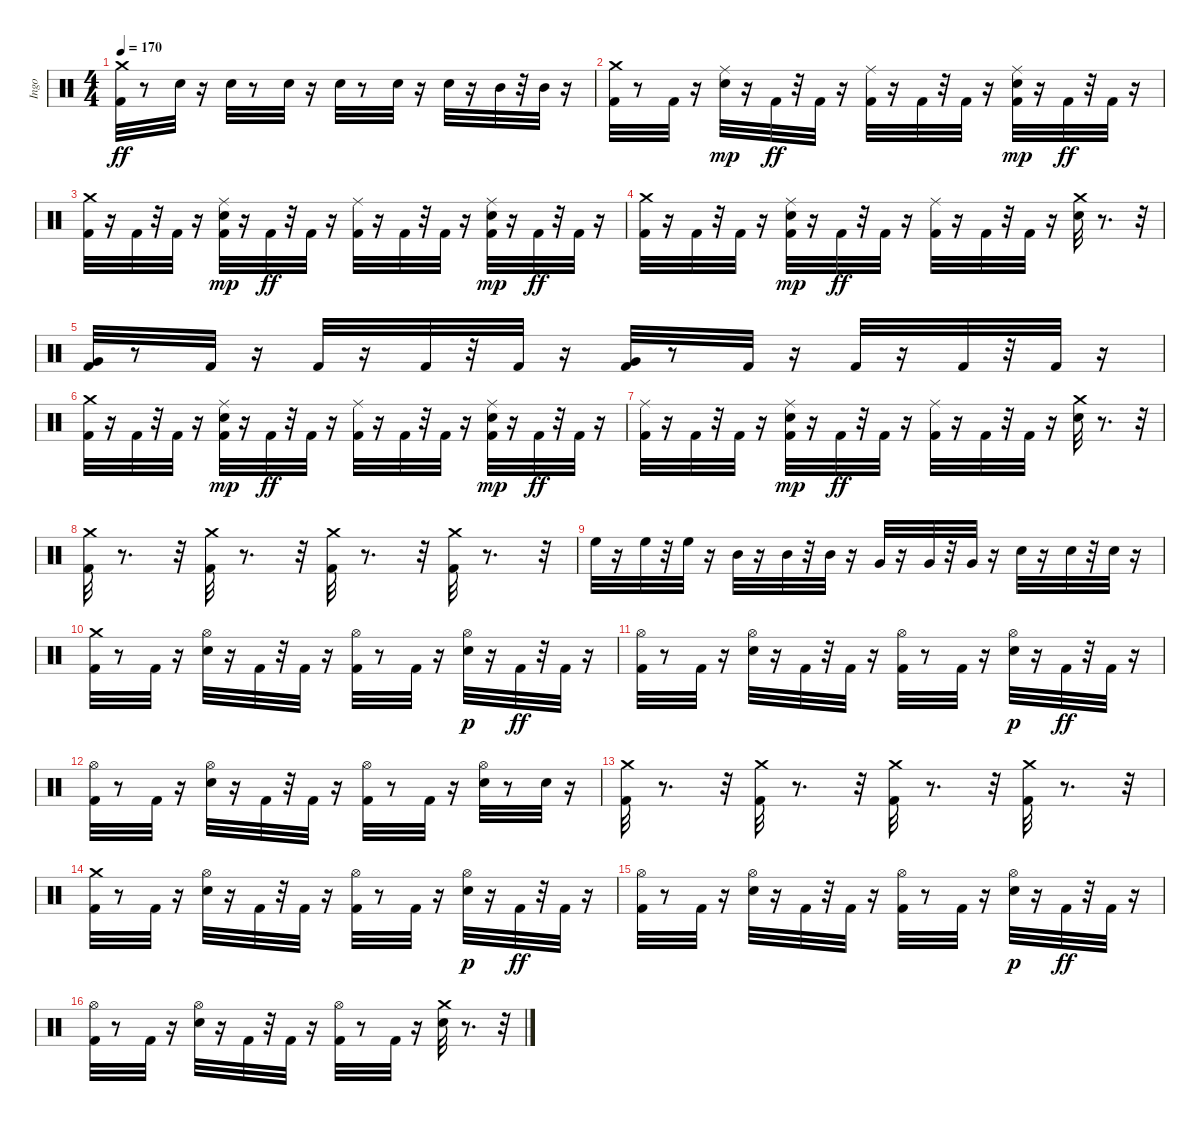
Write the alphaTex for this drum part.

\track ("Ingo" "Ingo") {instrument percussion}
\staff {score}
\articulation defaults
\ts (4 4)
\tempo 170
\clef neutral
\ks c
("Crash medium (hit)" "Kick (hit) 2").32{dy ff} r.8 "Snare (hit) 2".32 r.16 "Snare (hit) 2".32 r.8 "Snare (hit) 2".32 r.16 "Snare (hit) 2".32 r.8 "Snare (hit) 2".32 r.16 "Snare (hit) 2".32 r.16 "Mid Tom (hit)".32 r.32 "Mid Tom (hit)".32 r.16 |
("Kick (hit) 2" "Crash medium (hit)").32 r.8 "Kick (hit) 2".32 r.16 ("Snare (hit) 2" "Ride (middle)").32{dy mp} r.16 "Kick (hit) 2".32{dy ff} r.32 "Kick (hit) 2".32 r.16 ("Ride (middle)" "Kick (hit) 2").32 r.16 "Kick (hit) 2".32 r.32 "Kick (hit) 2".32 r.16 ("Kick (hit) 2" "Snare (hit) 2" "Ride (middle)").32{dy mp} r.16 "Kick (hit) 2".32{dy ff} r.32 "Kick (hit) 2".32 r.16 |
("Crash medium (hit)" "Kick (hit) 2").32 r.16 "Kick (hit) 2".32 r.32 "Kick (hit) 2".32 r.16 ("Kick (hit) 2" "Snare (hit) 2" "Ride (middle)").32{dy mp} r.16 "Kick (hit) 2".32{dy ff} r.32 "Kick (hit) 2".32 r.16 ("Ride (middle)" "Kick (hit) 2").32 r.16 "Kick (hit) 2".32 r.32 "Kick (hit) 2".32 r.16 ("Kick (hit) 2" "Snare (hit) 2" "Ride (middle)").32{dy mp} r.16 "Kick (hit) 2".32{dy ff} r.32 "Kick (hit) 2".32 r.16 |
("Crash medium (hit)" "Kick (hit) 2").32 r.16 "Kick (hit) 2".32 r.32 "Kick (hit) 2".32 r.16 ("Kick (hit) 2" "Snare (hit) 2" "Ride (middle)").32{dy mp} r.16 "Kick (hit) 2".32{dy ff} r.32 "Kick (hit) 2".32 r.16 ("Ride (middle)" "Kick (hit) 2").32 r.16 "Kick (hit) 2".32 r.32 "Kick (hit) 2".32 r.16 ("Snare (hit) 2" "Crash medium (hit)").32 r.8{d} r.32 |
("Very Low Tom (hit)" "Kick (hit) 2").32 r.8 "Kick (hit) 2".32 r.16 "Kick (hit) 2".32 r.16 "Kick (hit) 2".32 r.32 "Kick (hit) 2".32 r.16 ("Very Low Tom (hit)" "Kick (hit) 2").32 r.8 "Kick (hit) 2".32 r.16 "Kick (hit) 2".32 r.16 "Kick (hit) 2".32 r.32 "Kick (hit) 2".32 r.16 |
("Crash medium (hit)" "Kick (hit) 2").32 r.16 "Kick (hit) 2".32 r.32 "Kick (hit) 2".32 r.16 ("Kick (hit) 2" "Snare (hit) 2" "Ride (middle)").32{dy mp} r.16 "Kick (hit) 2".32{dy ff} r.32 "Kick (hit) 2".32 r.16 ("Ride (middle)" "Kick (hit) 2").32 r.16 "Kick (hit) 2".32 r.32 "Kick (hit) 2".32 r.16 ("Kick (hit) 2" "Snare (hit) 2" "Ride (middle)").32{dy mp} r.16 "Kick (hit) 2".32{dy ff} r.32 "Kick (hit) 2".32 r.16 |
("Ride (middle)" "Kick (hit) 2").32 r.16 "Kick (hit) 2".32 r.32 "Kick (hit) 2".32 r.16 ("Kick (hit) 2" "Snare (hit) 2" "Ride (middle)").32{dy mp} r.16 "Kick (hit) 2".32{dy ff} r.32 "Kick (hit) 2".32 r.16 ("Ride (middle)" "Kick (hit) 2").32 r.16 "Kick (hit) 2".32 r.32 "Kick (hit) 2".32 r.16 ("Snare (hit) 2" "Crash medium (hit)").32 r.8{d} r.32 |
("Crash medium (hit)" "Kick (hit) 2").32 r.8{d} r.32 ("Crash medium (hit)" "Kick (hit) 2").32 r.8{d} r.32 ("Crash medium (hit)" "Kick (hit) 2").32 r.8{d} r.32 ("Crash medium (hit)" "Kick (hit) 2").32 r.8{d} r.32 |
"High Floor Tom (hit)".32 r.16 "High Floor Tom (hit)".32 r.32 "High Floor Tom (hit)".32 r.16 "Mid Tom (hit)".32 r.16 "Mid Tom (hit)".32 r.32 "Mid Tom (hit)".32 r.16 "Very Low Tom (hit)".32 r.16 "Very Low Tom (hit)".32 r.32 "Very Low Tom (hit)".32 r.16 "Snare (hit)".32 r.16 "Snare (hit)".32 r.32 "Snare (hit)".32 r.16 |
("Crash medium (hit)" "Kick (hit) 2").32 r.8 "Kick (hit) 2".32 r.16 ("Hi-Hat (open)" "Snare (hit) 2").32 r.16 "Kick (hit) 2".32 r.32 "Kick (hit) 2".32 r.16 ("Hi-Hat (open)" "Kick (hit) 2").32 r.8 "Kick (hit) 2".32 r.16 ("Snare (hit) 2" "Hi-Hat (open)").32{dy p} r.16 "Kick (hit) 2".32{dy ff} r.32 "Kick (hit) 2".32 r.16 |
("Hi-Hat (open)" "Kick (hit) 2").32 r.8 "Kick (hit) 2".32 r.16 ("Hi-Hat (open)" "Snare (hit) 2").32 r.16 "Kick (hit) 2".32 r.32 "Kick (hit) 2".32 r.16 ("Hi-Hat (open)" "Kick (hit) 2").32 r.8 "Kick (hit) 2".32 r.16 ("Snare (hit) 2" "Hi-Hat (open)").32{dy p} r.16 "Kick (hit) 2".32{dy ff} r.32 "Kick (hit) 2".32 r.16 |
("Hi-Hat (open)" "Kick (hit) 2").32 r.8 "Kick (hit) 2".32 r.16 ("Hi-Hat (open)" "Snare (hit) 2").32 r.16 "Kick (hit) 2".32 r.32 "Kick (hit) 2".32 r.16 ("Hi-Hat (open)" "Kick (hit) 2").32 r.8 "Kick (hit) 2".32 r.16 ("Hi-Hat (open)" "Snare (hit) 2").32 r.8 "Snare (hit) 2".32 r.16 |
("Crash medium (hit)" "Kick (hit) 2").32 r.8{d} r.32 ("Crash medium (hit)" "Kick (hit) 2").32 r.8{d} r.32 ("Crash medium (hit)" "Kick (hit) 2").32 r.8{d} r.32 ("Crash medium (hit)" "Kick (hit) 2").32 r.8{d} r.32 |
("Crash medium (hit)" "Kick (hit) 2").32 r.8 "Kick (hit) 2".32 r.16 ("Hi-Hat (open)" "Snare (hit) 2").32 r.16 "Kick (hit) 2".32 r.32 "Kick (hit) 2".32 r.16 ("Hi-Hat (open)" "Kick (hit) 2").32 r.8 "Kick (hit) 2".32 r.16 ("Snare (hit) 2" "Hi-Hat (open)").32{dy p} r.16 "Kick (hit) 2".32{dy ff} r.32 "Kick (hit) 2".32 r.16 |
("Hi-Hat (open)" "Kick (hit) 2").32 r.8 "Kick (hit) 2".32 r.16 ("Hi-Hat (open)" "Snare (hit) 2").32 r.16 "Kick (hit) 2".32 r.32 "Kick (hit) 2".32 r.16 ("Hi-Hat (open)" "Kick (hit) 2").32 r.8 "Kick (hit) 2".32 r.16 ("Snare (hit) 2" "Hi-Hat (open)").32{dy p} r.16 "Kick (hit) 2".32{dy ff} r.32 "Kick (hit) 2".32 r.16 |
("Hi-Hat (open)" "Kick (hit) 2").32 r.8 "Kick (hit) 2".32 r.16 ("Hi-Hat (open)" "Snare (hit) 2").32 r.16 "Kick (hit) 2".32 r.32 "Kick (hit) 2".32 r.16 ("Hi-Hat (open)" "Kick (hit) 2").32 r.8 "Kick (hit) 2".32 r.16 ("Snare (hit) 2" "Crash medium (hit)").32 r.8{d} r.32
